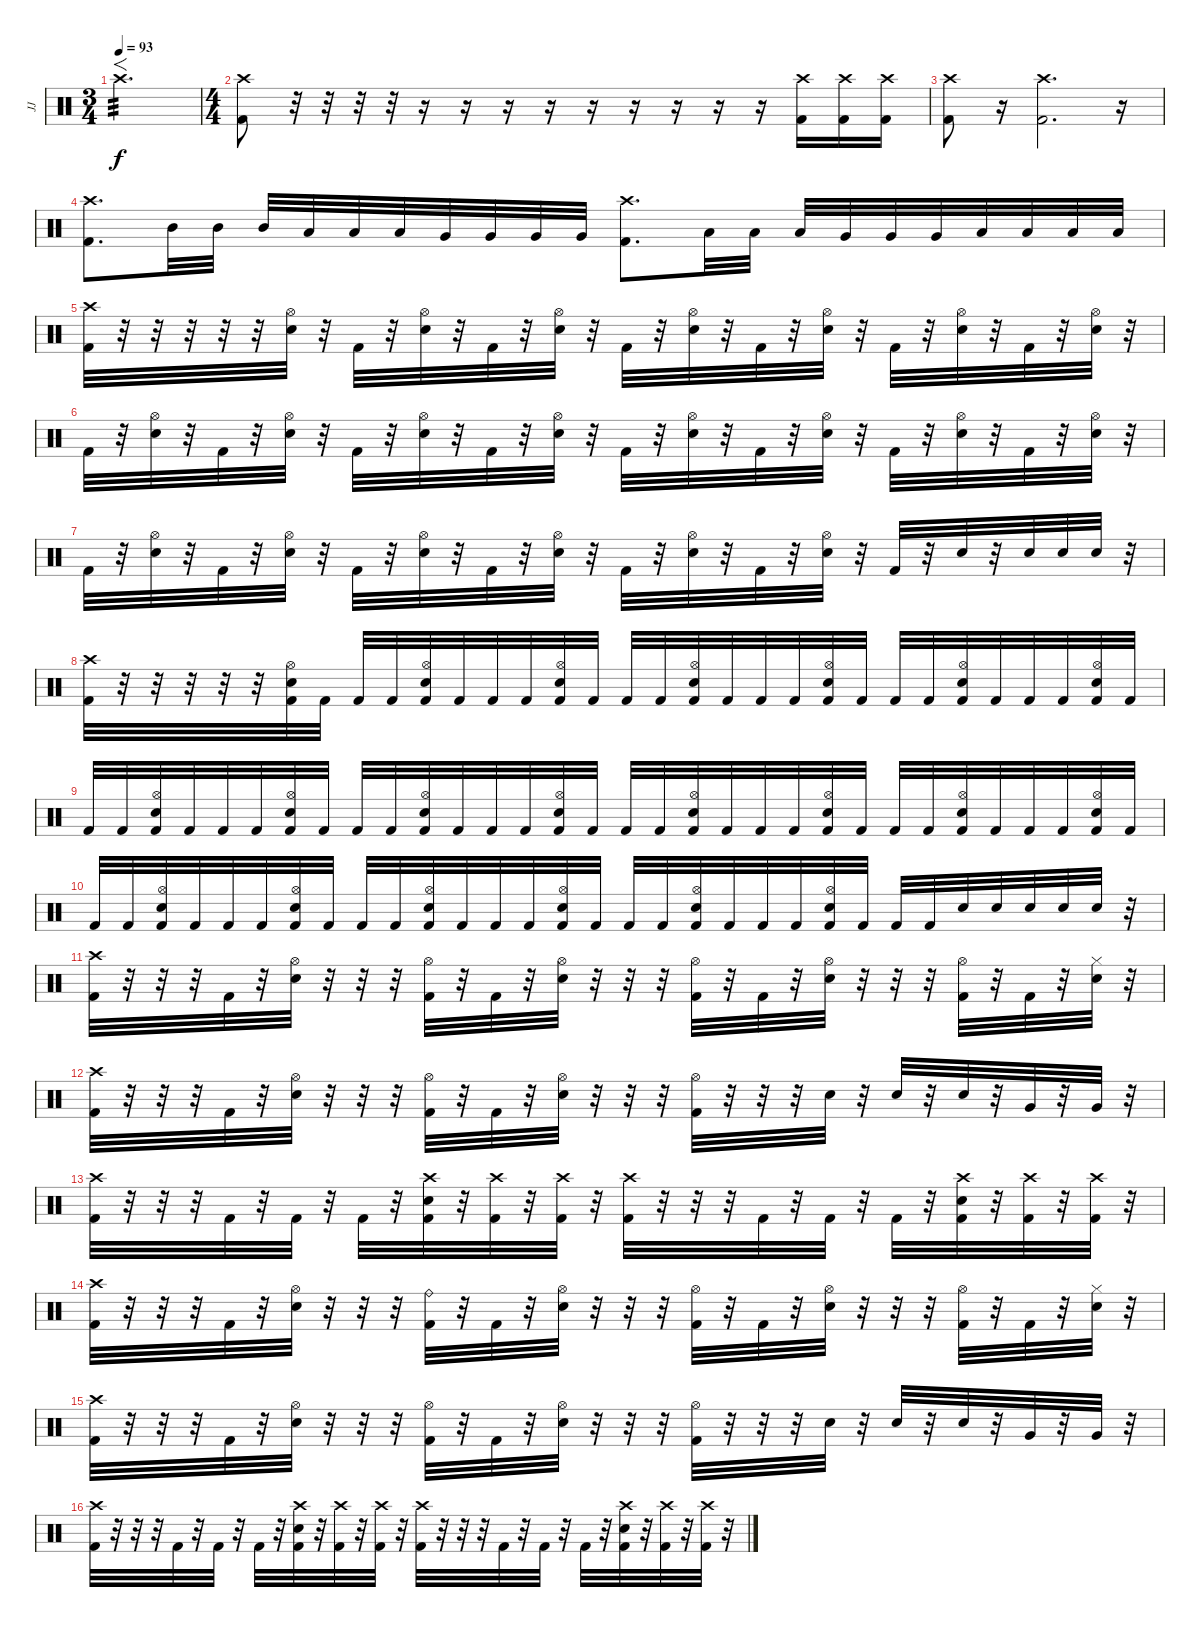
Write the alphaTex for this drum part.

\track ("JJ" "JJ") {instrument percussion}
\staff {score}
\articulation defaults
\ts (3 4)
\tempo 93
\clef neutral
\ks c "Crash high (hit)".2{f d tp 3 dy f}
|
\ts (4 4)
("Crash high (hit)" "Kick (hit) 2").8 r.32{volume 0} r.32 r.32 r.32 r.16 r.16 r.16 r.16 r.16 r.16 r.16 r.16 r.16 ("Crash high (hit)" "Kick (hit) 2").16{volume 16} ("Crash high (hit)" "Kick (hit) 2").16 ("Crash high (hit)" "Kick (hit) 2").16 |
("Crash high (hit)" "Kick (hit) 2").8 r.16{volume 0} ("Crash high (hit)" "Kick (hit) 2").2{d volume 16} r.16 |
("Crash high (hit)" "Kick (hit) 2").8{d} "Mid Tom (hit)".32 "Mid Tom (hit)".32 "Mid Tom (hit)".32 "Low Tom (hit)".32 "Low Tom (hit)".32 "Low Tom (hit)".32 "Very Low Tom (hit)".32 "Very Low Tom (hit)".32 "Very Low Tom (hit)".32 "Very Low Tom (hit)".32 ("Crash high (hit)" "Kick (hit) 2").8{d} "Low Tom (hit)".32 "Low Tom (hit)".32 "Low Tom (hit)".32 "Very Low Tom (hit)".32 "Very Low Tom (hit)".32 "Very Low Tom (hit)".32 "Low Floor Tom (hit)".32 "Low Floor Tom (hit)".32 "Low Floor Tom (hit)".32 "Low Floor Tom (hit)".32 |
("Crash high (hit)" "Kick (hit) 2").32 r.32 r.32 r.32 r.32 r.32 ("Hi-Hat (open)" "Electric Snare (hit)").32 r.32 "Kick (hit) 2".32 r.32 ("Hi-Hat (open)" "Electric Snare (hit)").32 r.32 "Kick (hit) 2".32 r.32 ("Hi-Hat (open)" "Electric Snare (hit)").32 r.32 "Kick (hit) 2".32 r.32 ("Hi-Hat (open)" "Electric Snare (hit)").32 r.32 "Kick (hit) 2".32 r.32 ("Hi-Hat (open)" "Electric Snare (hit)").32 r.32 "Kick (hit) 2".32 r.32 ("Hi-Hat (open)" "Electric Snare (hit)").32 r.32 "Kick (hit) 2".32 r.32 ("Hi-Hat (open)" "Electric Snare (hit)").32 r.32 |
"Kick (hit) 2".32 r.32 ("Hi-Hat (open)" "Electric Snare (hit)").32 r.32 "Kick (hit) 2".32 r.32 ("Hi-Hat (open)" "Electric Snare (hit)").32 r.32 "Kick (hit) 2".32 r.32 ("Hi-Hat (open)" "Electric Snare (hit)").32 r.32 "Kick (hit) 2".32 r.32 ("Hi-Hat (open)" "Electric Snare (hit)").32 r.32 "Kick (hit) 2".32 r.32 ("Hi-Hat (open)" "Electric Snare (hit)").32 r.32 "Kick (hit) 2".32 r.32 ("Hi-Hat (open)" "Electric Snare (hit)").32 r.32 "Kick (hit) 2".32 r.32 ("Hi-Hat (open)" "Electric Snare (hit)").32 r.32 "Kick (hit) 2".32 r.32 ("Hi-Hat (open)" "Electric Snare (hit)").32 r.32 |
"Kick (hit) 2".32 r.32 ("Hi-Hat (open)" "Electric Snare (hit)").32 r.32 "Kick (hit) 2".32 r.32 ("Hi-Hat (open)" "Electric Snare (hit)").32 r.32 "Kick (hit) 2".32 r.32 ("Hi-Hat (open)" "Electric Snare (hit)").32 r.32 "Kick (hit) 2".32 r.32 ("Hi-Hat (open)" "Electric Snare (hit)").32 r.32 "Kick (hit) 2".32 r.32 ("Hi-Hat (open)" "Electric Snare (hit)").32 r.32 "Kick (hit) 2".32 r.32 ("Hi-Hat (open)" "Electric Snare (hit)").32 r.32 "Kick (hit) 2".32 r.32 "Electric Snare (hit)".32 r.32 "Electric Snare (hit)".32 "Electric Snare (hit)".32 "Electric Snare (hit)".32 r.32 |
("Crash high (hit)" "Kick (hit) 2").32 r.32 r.32 r.32 r.32 r.32 ("Hi-Hat (open)" "Electric Snare (hit)" "Kick (hit) 2").32 "Kick (hit) 2".32 "Kick (hit) 2".32 "Kick (hit) 2".32 ("Hi-Hat (open)" "Electric Snare (hit)" "Kick (hit) 2").32 "Kick (hit) 2".32 "Kick (hit) 2".32 "Kick (hit) 2".32 ("Hi-Hat (open)" "Electric Snare (hit)" "Kick (hit) 2").32 "Kick (hit) 2".32 "Kick (hit) 2".32 "Kick (hit) 2".32 ("Hi-Hat (open)" "Electric Snare (hit)" "Kick (hit) 2").32 "Kick (hit) 2".32 "Kick (hit) 2".32 "Kick (hit) 2".32 ("Hi-Hat (open)" "Electric Snare (hit)" "Kick (hit) 2").32 "Kick (hit) 2".32 "Kick (hit) 2".32 "Kick (hit) 2".32 ("Hi-Hat (open)" "Electric Snare (hit)" "Kick (hit) 2").32 "Kick (hit) 2".32 "Kick (hit) 2".32 "Kick (hit) 2".32 ("Hi-Hat (open)" "Electric Snare (hit)" "Kick (hit) 2").32 "Kick (hit) 2".32 |
"Kick (hit) 2".32 "Kick (hit) 2".32 ("Hi-Hat (open)" "Electric Snare (hit)" "Kick (hit) 2").32 "Kick (hit) 2".32 "Kick (hit) 2".32 "Kick (hit) 2".32 ("Hi-Hat (open)" "Electric Snare (hit)" "Kick (hit) 2").32 "Kick (hit) 2".32 "Kick (hit) 2".32 "Kick (hit) 2".32 ("Hi-Hat (open)" "Electric Snare (hit)" "Kick (hit) 2").32 "Kick (hit) 2".32 "Kick (hit) 2".32 "Kick (hit) 2".32 ("Hi-Hat (open)" "Electric Snare (hit)" "Kick (hit) 2").32 "Kick (hit) 2".32 "Kick (hit) 2".32 "Kick (hit) 2".32 ("Hi-Hat (open)" "Electric Snare (hit)" "Kick (hit) 2").32 "Kick (hit) 2".32 "Kick (hit) 2".32 "Kick (hit) 2".32 ("Hi-Hat (open)" "Electric Snare (hit)" "Kick (hit) 2").32 "Kick (hit) 2".32 "Kick (hit) 2".32 "Kick (hit) 2".32 ("Hi-Hat (open)" "Electric Snare (hit)" "Kick (hit) 2").32 "Kick (hit) 2".32 "Kick (hit) 2".32 "Kick (hit) 2".32 ("Hi-Hat (open)" "Electric Snare (hit)" "Kick (hit) 2").32 "Kick (hit) 2".32 |
"Kick (hit) 2".32 "Kick (hit) 2".32 ("Hi-Hat (open)" "Electric Snare (hit)" "Kick (hit) 2").32 "Kick (hit) 2".32 "Kick (hit) 2".32 "Kick (hit) 2".32 ("Hi-Hat (open)" "Electric Snare (hit)" "Kick (hit) 2").32 "Kick (hit) 2".32 "Kick (hit) 2".32 "Kick (hit) 2".32 ("Hi-Hat (open)" "Electric Snare (hit)" "Kick (hit) 2").32 "Kick (hit) 2".32 "Kick (hit) 2".32 "Kick (hit) 2".32 ("Hi-Hat (open)" "Electric Snare (hit)" "Kick (hit) 2").32 "Kick (hit) 2".32 "Kick (hit) 2".32 "Kick (hit) 2".32 ("Hi-Hat (open)" "Electric Snare (hit)" "Kick (hit) 2").32 "Kick (hit) 2".32 "Kick (hit) 2".32 "Kick (hit) 2".32 ("Hi-Hat (open)" "Electric Snare (hit)" "Kick (hit) 2").32 "Kick (hit) 2".32 "Kick (hit) 2".32 "Kick (hit) 2".32 "Electric Snare (hit)".32 "Electric Snare (hit)".32 "Electric Snare (hit)".32 "Electric Snare (hit)".32 "Electric Snare (hit)".32 r.32 |
("Crash high (hit)" "Kick (hit) 2").32 r.32 r.32 r.32 "Kick (hit) 2".32 r.32 ("Hi-Hat (open)" "Electric Snare (hit)").32 r.32 r.32 r.32 ("Hi-Hat (open)" "Kick (hit) 2").32 r.32 "Kick (hit) 2".32 r.32 ("Hi-Hat (open)" "Electric Snare (hit)").32 r.32 r.32 r.32 ("Hi-Hat (open)" "Kick (hit) 2").32 r.32 "Kick (hit) 2".32 r.32 ("Hi-Hat (open)" "Electric Snare (hit)").32 r.32 r.32 r.32 ("Hi-Hat (open)" "Kick (hit) 2").32 r.32 "Kick (hit) 2".32 r.32 ("Hi-Hat (closed)" "Electric Snare (hit)").32 r.32 |
("Crash high (hit)" "Kick (hit) 2").32 r.32 r.32 r.32 "Kick (hit) 2".32 r.32 ("Hi-Hat (open)" "Electric Snare (hit)").32 r.32 r.32 r.32 ("Hi-Hat (open)" "Kick (hit) 2").32 r.32 "Kick (hit) 2".32 r.32 ("Hi-Hat (open)" "Electric Snare (hit)").32 r.32 r.32 r.32 ("Hi-Hat (open)" "Kick (hit) 2").32 r.32 r.32 r.32 "Electric Snare (hit)".32 r.32 "Electric Snare (hit)".32 r.32 "Electric Snare (hit)".32 r.32 "Very Low Tom (hit)".32 r.32 "Very Low Tom (hit)".32 r.32 |
("Crash high (hit)" "Kick (hit) 2").32 r.32 r.32 r.32 "Kick (hit) 2".32 r.32 "Kick (hit) 2".32 r.32 "Kick (hit) 2".32 r.32 ("Crash high (hit)" "Electric Snare (hit)" "Kick (hit) 2").32 r.32 ("Crash high (hit)" "Kick (hit) 2").32 r.32 ("Crash high (hit)" "Kick (hit) 2").32 r.32 ("Crash high (hit)" "Kick (hit) 2").32 r.32 r.32 r.32 "Kick (hit) 2".32 r.32 "Kick (hit) 2".32 r.32 "Kick (hit) 2".32 r.32 ("Crash high (hit)" "Electric Snare (hit)" "Kick (hit) 2").32 r.32 ("Crash high (hit)" "Kick (hit) 2").32 r.32 ("Crash high (hit)" "Kick (hit) 2").32 r.32 |
("Crash high (hit)" "Kick (hit) 2").32 r.32 r.32 r.32 "Kick (hit) 2".32 r.32 ("Hi-Hat (open)" "Electric Snare (hit)").32 r.32 r.32 r.32 ("Ride (bell)" "Kick (hit) 2").32 r.32 "Kick (hit) 2".32 r.32 ("Hi-Hat (open)" "Electric Snare (hit)").32 r.32 r.32 r.32 ("Hi-Hat (open)" "Kick (hit) 2").32 r.32 "Kick (hit) 2".32 r.32 ("Hi-Hat (open)" "Electric Snare (hit)").32 r.32 r.32 r.32 ("Hi-Hat (open)" "Kick (hit) 2").32 r.32 "Kick (hit) 2".32 r.32 ("Hi-Hat (closed)" "Electric Snare (hit)").32 r.32 |
("Crash high (hit)" "Kick (hit) 2").32 r.32 r.32 r.32 "Kick (hit) 2".32 r.32 ("Hi-Hat (open)" "Electric Snare (hit)").32 r.32 r.32 r.32 ("Hi-Hat (open)" "Kick (hit) 2").32 r.32 "Kick (hit) 2".32 r.32 ("Hi-Hat (open)" "Electric Snare (hit)").32 r.32 r.32 r.32 ("Hi-Hat (open)" "Kick (hit) 2").32 r.32 r.32 r.32 "Electric Snare (hit)".32 r.32 "Electric Snare (hit)".32 r.32 "Electric Snare (hit)".32 r.32 "Very Low Tom (hit)".32 r.32 "Very Low Tom (hit)".32 r.32 |
("Crash high (hit)" "Kick (hit) 2").32 r.32 r.32 r.32 "Kick (hit) 2".32 r.32 "Kick (hit) 2".32 r.32 "Kick (hit) 2".32 r.32 ("Crash high (hit)" "Electric Snare (hit)" "Kick (hit) 2").32 r.32 ("Crash high (hit)" "Kick (hit) 2").32 r.32 ("Crash high (hit)" "Kick (hit) 2").32 r.32 ("Crash high (hit)" "Kick (hit) 2").32 r.32 r.32 r.32 "Kick (hit) 2".32 r.32 "Kick (hit) 2".32 r.32 "Kick (hit) 2".32 r.32 ("Crash high (hit)" "Electric Snare (hit)" "Kick (hit) 2").32 r.32 ("Crash high (hit)" "Kick (hit) 2").32 r.32 ("Crash high (hit)" "Kick (hit) 2").32 r.32
